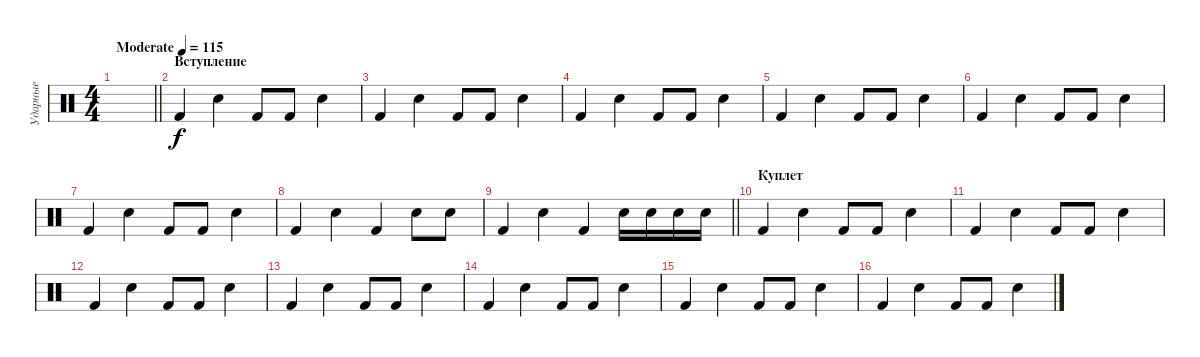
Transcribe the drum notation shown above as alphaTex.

\track ("Ударные" "Ударные") {instrument percussion}
\staff {score}
\articulation defaults
\ts (4 4)
\tempo (115 "Moderate")
\clef neutral
\barLineRight lightlight
\ks c
|
\section ("" "Вступление")
"Kick (hit) 2".4 "Electric Snare (hit)".4 "Kick (hit) 2".8 "Kick (hit) 2".8 "Electric Snare (hit)".4 |
"Kick (hit) 2".4 "Electric Snare (hit)".4 "Kick (hit) 2".8 "Kick (hit) 2".8 "Electric Snare (hit)".4 |
"Kick (hit) 2".4 "Electric Snare (hit)".4 "Kick (hit) 2".8 "Kick (hit) 2".8 "Electric Snare (hit)".4 |
"Kick (hit) 2".4 "Electric Snare (hit)".4 "Kick (hit) 2".8 "Kick (hit) 2".8 "Electric Snare (hit)".4 |
"Kick (hit) 2".4 "Electric Snare (hit)".4 "Kick (hit) 2".8 "Kick (hit) 2".8 "Electric Snare (hit)".4 |
"Kick (hit) 2".4 "Electric Snare (hit)".4 "Kick (hit) 2".8 "Kick (hit) 2".8 "Electric Snare (hit)".4 |
"Kick (hit) 2".4 "Electric Snare (hit)".4 "Kick (hit) 2".4 "Electric Snare (hit)".8 "Electric Snare (hit)".8 |
\barLineRight lightlight "Kick (hit) 2".4 "Electric Snare (hit)".4 "Kick (hit) 2".4 "Electric Snare (hit)".16 "Electric Snare (hit)".16 "Electric Snare (hit)".16 "Electric Snare (hit)".16
|
\section ("" "Куплет")
"Kick (hit) 2".4 "Electric Snare (hit)".4 "Kick (hit) 2".8 "Kick (hit) 2".8 "Electric Snare (hit)".4 |
"Kick (hit) 2".4 "Electric Snare (hit)".4 "Kick (hit) 2".8 "Kick (hit) 2".8 "Electric Snare (hit)".4 |
"Kick (hit) 2".4 "Electric Snare (hit)".4 "Kick (hit) 2".8 "Kick (hit) 2".8 "Electric Snare (hit)".4 |
"Kick (hit) 2".4 "Electric Snare (hit)".4 "Kick (hit) 2".8 "Kick (hit) 2".8 "Electric Snare (hit)".4 |
"Kick (hit) 2".4 "Electric Snare (hit)".4 "Kick (hit) 2".8 "Kick (hit) 2".8 "Electric Snare (hit)".4 |
"Kick (hit) 2".4 "Electric Snare (hit)".4 "Kick (hit) 2".8 "Kick (hit) 2".8 "Electric Snare (hit)".4 |
"Kick (hit) 2".4 "Electric Snare (hit)".4 "Kick (hit) 2".8 "Kick (hit) 2".8 "Electric Snare (hit)".4
